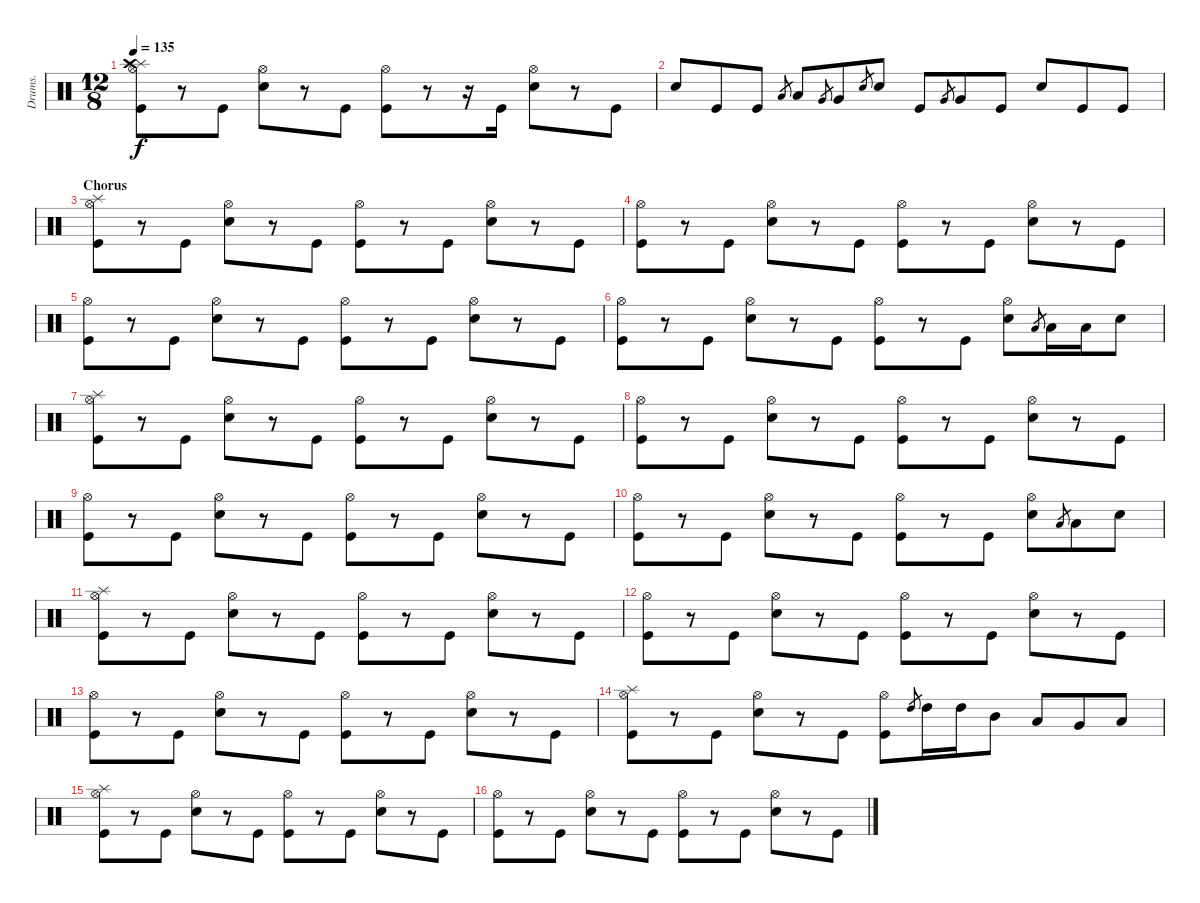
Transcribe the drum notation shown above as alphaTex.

\track ("Drums." "Drums.") {instrument percussion}
\staff {score}
\articulation defaults
\ts (12 8)
\tempo 135
\clef neutral
\ks c
("Hi-Hat (open)" "Splash (hit)" "Crash high (hit)" "Kick (hit)").8{dy f} r.8 "Kick (hit)".8 ("Hi-Hat (open)" "Snare (hit) 2").8 r.8 "Kick (hit)".8 ("Hi-Hat (open)" "Kick (hit)").8 r.8 r.16 "Kick (hit)".16 ("Hi-Hat (open)" "Snare (hit) 2").8 r.8 "Kick (hit)".8 |
"Snare (hit) 2".8 "Kick (hit)".8 "Kick (hit)".8 "Low Tom (hit)".8{gr} "Low Tom (hit)".8 "Very Low Tom (hit)".8{gr} "Very Low Tom (hit)".8 "Snare (hit) 2".8{gr} "Snare (hit) 2".8 "Kick (hit)".8 "Very Low Tom (hit)".8{gr} "Very Low Tom (hit)".8 "Kick (hit)".8 "Snare (hit) 2".8 "Kick (hit)".8 "Kick (hit)".8 |
\section ("" "Chorus")
("Hi-Hat (open)" "Splash (hit)" "Kick (hit)").8 r.8 "Kick (hit)".8 ("Hi-Hat (open)" "Snare (hit) 2").8 r.8 "Kick (hit)".8 ("Hi-Hat (open)" "Kick (hit)").8 r.8 "Kick (hit)".8 ("Hi-Hat (open)" "Snare (hit) 2").8 r.8 "Kick (hit)".8 |
("Hi-Hat (open)" "Kick (hit)").8 r.8 "Kick (hit)".8 ("Hi-Hat (open)" "Snare (hit) 2").8 r.8 "Kick (hit)".8 ("Hi-Hat (open)" "Kick (hit)").8 r.8 "Kick (hit)".8 ("Hi-Hat (open)" "Snare (hit) 2").8 r.8 "Kick (hit)".8 |
("Hi-Hat (open)" "Kick (hit)").8 r.8 "Kick (hit)".8 ("Hi-Hat (open)" "Snare (hit) 2").8 r.8 "Kick (hit)".8 ("Hi-Hat (open)" "Kick (hit)").8 r.8 "Kick (hit)".8 ("Hi-Hat (open)" "Snare (hit) 2").8 r.8 "Kick (hit)".8 |
("Hi-Hat (open)" "Kick (hit)").8 r.8 "Kick (hit)".8 ("Hi-Hat (open)" "Snare (hit) 2").8 r.8 "Kick (hit)".8 ("Hi-Hat (open)" "Kick (hit)").8 r.8 "Kick (hit)".8 ("Hi-Hat (open)" "Snare (hit) 2").8 "Low Tom (hit)".8{gr} "Low Tom (hit)".16 "Low Tom (hit)".16 "Snare (hit) 2".8 |
("Hi-Hat (open)" "Splash (hit)" "Kick (hit)").8 r.8 "Kick (hit)".8 ("Hi-Hat (open)" "Snare (hit) 2").8 r.8 "Kick (hit)".8 ("Hi-Hat (open)" "Kick (hit)").8 r.8 "Kick (hit)".8 ("Hi-Hat (open)" "Snare (hit) 2").8 r.8 "Kick (hit)".8 |
("Hi-Hat (open)" "Kick (hit)").8 r.8 "Kick (hit)".8 ("Hi-Hat (open)" "Snare (hit) 2").8 r.8 "Kick (hit)".8 ("Hi-Hat (open)" "Kick (hit)").8 r.8 "Kick (hit)".8 ("Hi-Hat (open)" "Snare (hit) 2").8 r.8 "Kick (hit)".8 |
("Hi-Hat (open)" "Kick (hit)").8 r.8 "Kick (hit)".8 ("Hi-Hat (open)" "Snare (hit) 2").8 r.8 "Kick (hit)".8 ("Hi-Hat (open)" "Kick (hit)").8 r.8 "Kick (hit)".8 ("Hi-Hat (open)" "Snare (hit) 2").8 r.8 "Kick (hit)".8 |
("Hi-Hat (open)" "Kick (hit)").8 r.8 "Kick (hit)".8 ("Hi-Hat (open)" "Snare (hit) 2").8 r.8 "Kick (hit)".8 ("Hi-Hat (open)" "Kick (hit)").8 r.8 "Kick (hit)".8 ("Hi-Hat (open)" "Snare (hit) 2").8 "Low Tom (hit)".8{gr} "Low Tom (hit)".8 "Snare (hit) 2".8 |
("Hi-Hat (open)" "Splash (hit)" "Kick (hit)").8 r.8 "Kick (hit)".8 ("Hi-Hat (open)" "Snare (hit) 2").8 r.8 "Kick (hit)".8 ("Hi-Hat (open)" "Kick (hit)").8 r.8 "Kick (hit)".8 ("Hi-Hat (open)" "Snare (hit) 2").8 r.8 "Kick (hit)".8 |
("Hi-Hat (open)" "Kick (hit)").8 r.8 "Kick (hit)".8 ("Hi-Hat (open)" "Snare (hit) 2").8 r.8 "Kick (hit)".8 ("Hi-Hat (open)" "Kick (hit)").8 r.8 "Kick (hit)".8 ("Hi-Hat (open)" "Snare (hit) 2").8 r.8 "Kick (hit)".8 |
("Hi-Hat (open)" "Kick (hit)").8 r.8 "Kick (hit)".8 ("Hi-Hat (open)" "Snare (hit) 2").8 r.8 "Kick (hit)".8 ("Hi-Hat (open)" "Kick (hit)").8 r.8 "Kick (hit)".8 ("Hi-Hat (open)" "Snare (hit) 2").8 r.8 "Kick (hit)".8 |
("Hi-Hat (open)" "Splash (hit)" "Kick (hit)").8 r.8 "Kick (hit)".8 ("Hi-Hat (open)" "Snare (hit) 2").8 r.8 "Kick (hit)".8 ("Hi-Hat (open)" "Kick (hit)").8 "High Tom (hit)".8{gr} "High Tom (hit)".16 "High Tom (hit)".16 "Mid Tom (hit)".8 "Low Tom (hit)".8 "Very Low Tom (hit)".8 "Low Floor Tom (hit)".8 |
("Hi-Hat (open)" "Splash (hit)" "Kick (hit)").8 r.8 "Kick (hit)".8 ("Hi-Hat (open)" "Snare (hit) 2").8 r.8 "Kick (hit)".8 ("Hi-Hat (open)" "Kick (hit)").8 r.8 "Kick (hit)".8 ("Hi-Hat (open)" "Snare (hit) 2").8 r.8 "Kick (hit)".8 |
("Hi-Hat (open)" "Kick (hit)").8 r.8 "Kick (hit)".8 ("Hi-Hat (open)" "Snare (hit) 2").8 r.8 "Kick (hit)".8 ("Hi-Hat (open)" "Kick (hit)").8 r.8 "Kick (hit)".8 ("Hi-Hat (open)" "Snare (hit) 2").8 r.8 "Kick (hit)".8
